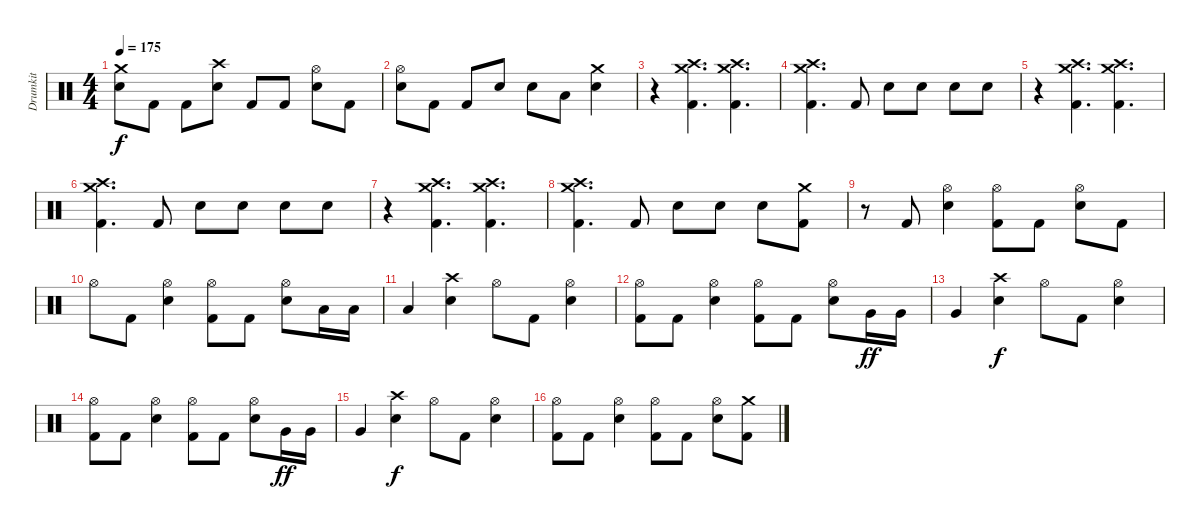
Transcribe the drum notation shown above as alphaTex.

\track ("Drumkit" "Drumkit") {instrument percussion}
\staff {score}
\articulation defaults
\ts (4 4)
\tempo 175
\clef neutral
\ks c
("Crash medium (hit)" "Electric Snare (hit)").8{dy f} "Kick (hit) 2".8 "Kick (hit) 2".8 ("Crash high (hit)" "Electric Snare (hit)").8 "Kick (hit) 2".8 "Kick (hit) 2".8 ("Hi-Hat (open)" "Electric Snare (hit)").8 "Kick (hit) 2".8 |
("Hi-Hat (open)" "Electric Snare (hit)").8 "Kick (hit) 2".8 "Kick (hit) 2".8 "Electric Snare (hit)".8 "Electric Snare (hit)".8 "Low Tom (hit)".8 ("Crash medium (hit)" "Electric Snare (hit)").4 |
r.4 ("Crash high (hit)" "Crash medium (hit)" "Kick (hit) 2").4{d} ("Crash high (hit)" "Crash medium (hit)" "Kick (hit) 2").4{d} |
("Crash high (hit)" "Crash medium (hit)" "Kick (hit) 2").4{d} "Kick (hit) 2".8 "Electric Snare (hit)".8 "Electric Snare (hit)".8 "Electric Snare (hit)".8 "Electric Snare (hit)".8 |
r.4 ("Crash high (hit)" "Crash medium (hit)" "Kick (hit) 2").4{d} ("Crash high (hit)" "Crash medium (hit)" "Kick (hit) 2").4{d} |
("Crash high (hit)" "Crash medium (hit)" "Kick (hit) 2").4{d} "Kick (hit) 2".8 "Electric Snare (hit)".8 "Electric Snare (hit)".8 "Electric Snare (hit)".8 "Electric Snare (hit)".8 |
r.4 ("Crash high (hit)" "Crash medium (hit)" "Kick (hit) 2").4{d} ("Crash high (hit)" "Crash medium (hit)" "Kick (hit) 2").4{d} |
("Crash high (hit)" "Crash medium (hit)" "Kick (hit) 2").4{d} "Kick (hit) 2".8 "Electric Snare (hit)".8 "Electric Snare (hit)".8 "Electric Snare (hit)".8 ("Crash medium (hit)" "Kick (hit) 2").8 |
r.8 "Kick (hit) 2".8 ("Hi-Hat (open)" "Electric Snare (hit)").4 ("Hi-Hat (open)" "Kick (hit) 2").8 "Kick (hit) 2".8 ("Hi-Hat (open)" "Electric Snare (hit)").8 "Kick (hit) 2".8 |
"Hi-Hat (open)".8 "Kick (hit) 2".8 ("Hi-Hat (open)" "Electric Snare (hit)").4 ("Hi-Hat (open)" "Kick (hit) 2").8 "Kick (hit) 2".8 ("Hi-Hat (open)" "Electric Snare (hit)").8 "Low Tom (hit)".16 "Low Tom (hit)".16 |
"Low Tom (hit)".4 ("Crash high (hit)" "Electric Snare (hit)").4 "Hi-Hat (open)".8 "Kick (hit) 2".8 ("Hi-Hat (open)" "Electric Snare (hit)").4 |
("Hi-Hat (open)" "Kick (hit) 2").8 "Kick (hit) 2".8 ("Hi-Hat (open)" "Electric Snare (hit)").4 ("Hi-Hat (open)" "Kick (hit) 2").8 "Kick (hit) 2".8 ("Hi-Hat (open)" "Electric Snare (hit)").8 "Very Low Tom (hit)".16{dy ff} "Very Low Tom (hit)".16 |
"Very Low Tom (hit)".4 ("Crash high (hit)" "Electric Snare (hit)").4{dy f} "Hi-Hat (open)".8 "Kick (hit) 2".8 ("Hi-Hat (open)" "Electric Snare (hit)").4 |
("Hi-Hat (open)" "Kick (hit) 2").8 "Kick (hit) 2".8 ("Hi-Hat (open)" "Electric Snare (hit)").4 ("Hi-Hat (open)" "Kick (hit) 2").8 "Kick (hit) 2".8 ("Hi-Hat (open)" "Electric Snare (hit)").8 "Very Low Tom (hit)".16{dy ff} "Very Low Tom (hit)".16 |
"Very Low Tom (hit)".4 ("Crash high (hit)" "Electric Snare (hit)").4{dy f} "Hi-Hat (open)".8 "Kick (hit) 2".8 ("Hi-Hat (open)" "Electric Snare (hit)").4 |
("Hi-Hat (open)" "Kick (hit) 2").8 "Kick (hit) 2".8 ("Hi-Hat (open)" "Electric Snare (hit)").4 ("Hi-Hat (open)" "Kick (hit) 2").8 "Kick (hit) 2".8 ("Hi-Hat (open)" "Electric Snare (hit)").8 ("Crash medium (hit)" "Kick (hit) 2").8
